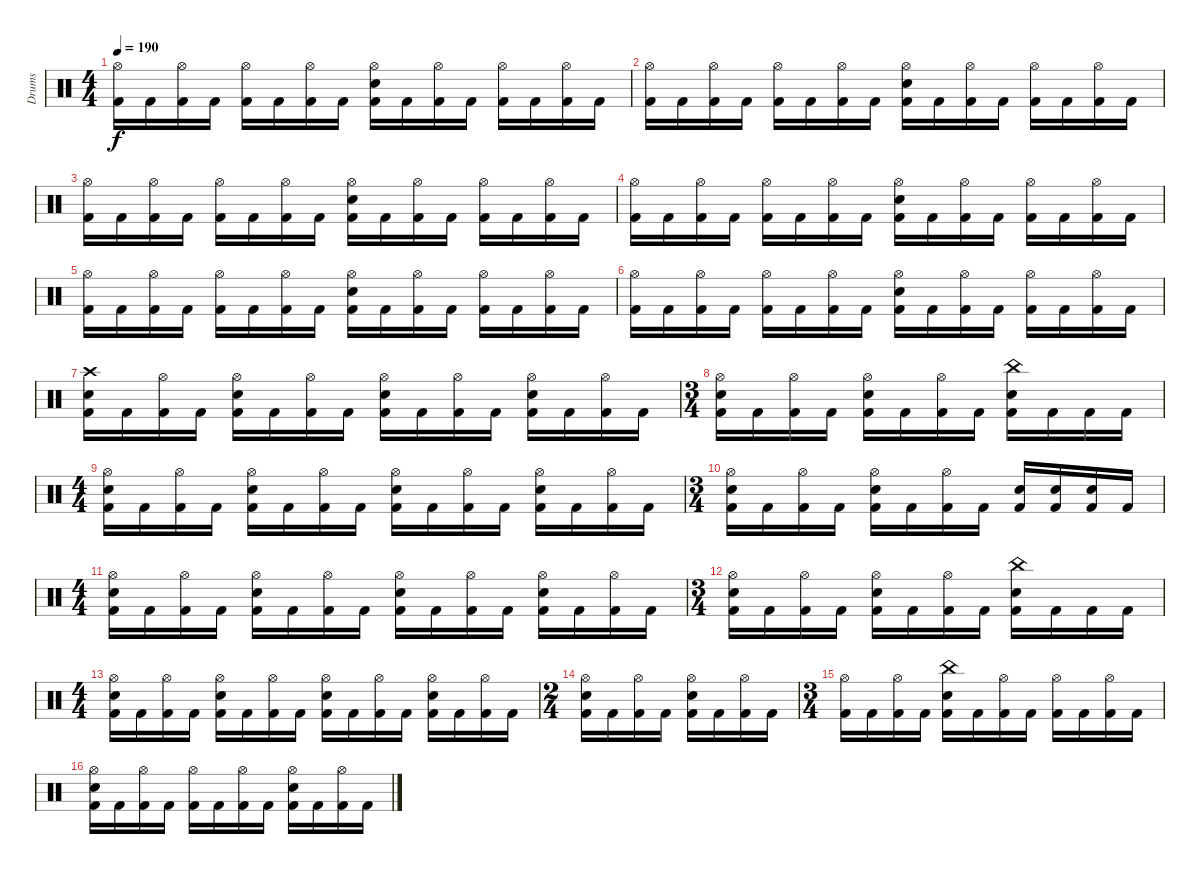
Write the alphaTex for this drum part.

\track ("Drums" "Drums") {instrument percussion}
\staff {score}
\articulation defaults
\ts (4 4)
\tempo 190
\clef neutral
\ks c
("Hi-Hat (open)" "Kick (hit) 2").16{dy f} "Kick (hit) 2".16 ("Hi-Hat (open)" "Kick (hit) 2").16 "Kick (hit) 2".16 ("Hi-Hat (open)" "Kick (hit) 2").16 "Kick (hit) 2".16 ("Hi-Hat (open)" "Kick (hit) 2").16 "Kick (hit) 2".16 ("Hi-Hat (open)" "Electric Snare (hit)" "Kick (hit) 2").16 "Kick (hit) 2".16 ("Hi-Hat (open)" "Kick (hit) 2").16 "Kick (hit) 2".16 ("Hi-Hat (open)" "Kick (hit) 2").16 "Kick (hit) 2".16 ("Hi-Hat (open)" "Kick (hit) 2").16 "Kick (hit) 2".16 |
("Hi-Hat (open)" "Kick (hit) 2").16 "Kick (hit) 2".16 ("Hi-Hat (open)" "Kick (hit) 2").16 "Kick (hit) 2".16 ("Hi-Hat (open)" "Kick (hit) 2").16 "Kick (hit) 2".16 ("Hi-Hat (open)" "Kick (hit) 2").16 "Kick (hit) 2".16 ("Hi-Hat (open)" "Electric Snare (hit)" "Kick (hit) 2").16 "Kick (hit) 2".16 ("Hi-Hat (open)" "Kick (hit) 2").16 "Kick (hit) 2".16 ("Hi-Hat (open)" "Kick (hit) 2").16 "Kick (hit) 2".16 ("Hi-Hat (open)" "Kick (hit) 2").16 "Kick (hit) 2".16 |
("Hi-Hat (open)" "Kick (hit) 2").16 "Kick (hit) 2".16 ("Hi-Hat (open)" "Kick (hit) 2").16 "Kick (hit) 2".16 ("Hi-Hat (open)" "Kick (hit) 2").16 "Kick (hit) 2".16 ("Hi-Hat (open)" "Kick (hit) 2").16 "Kick (hit) 2".16 ("Hi-Hat (open)" "Electric Snare (hit)" "Kick (hit) 2").16 "Kick (hit) 2".16 ("Hi-Hat (open)" "Kick (hit) 2").16 "Kick (hit) 2".16 ("Hi-Hat (open)" "Kick (hit) 2").16 "Kick (hit) 2".16 ("Hi-Hat (open)" "Kick (hit) 2").16 "Kick (hit) 2".16 |
("Hi-Hat (open)" "Kick (hit) 2").16 "Kick (hit) 2".16 ("Hi-Hat (open)" "Kick (hit) 2").16 "Kick (hit) 2".16 ("Hi-Hat (open)" "Kick (hit) 2").16 "Kick (hit) 2".16 ("Hi-Hat (open)" "Kick (hit) 2").16 "Kick (hit) 2".16 ("Hi-Hat (open)" "Electric Snare (hit)" "Kick (hit) 2").16 "Kick (hit) 2".16 ("Hi-Hat (open)" "Kick (hit) 2").16 "Kick (hit) 2".16 ("Hi-Hat (open)" "Kick (hit) 2").16 "Kick (hit) 2".16 ("Hi-Hat (open)" "Kick (hit) 2").16 "Kick (hit) 2".16 |
("Hi-Hat (open)" "Kick (hit) 2").16 "Kick (hit) 2".16 ("Hi-Hat (open)" "Kick (hit) 2").16 "Kick (hit) 2".16 ("Hi-Hat (open)" "Kick (hit) 2").16 "Kick (hit) 2".16 ("Hi-Hat (open)" "Kick (hit) 2").16 "Kick (hit) 2".16 ("Hi-Hat (open)" "Electric Snare (hit)" "Kick (hit) 2").16 "Kick (hit) 2".16 ("Hi-Hat (open)" "Kick (hit) 2").16 "Kick (hit) 2".16 ("Hi-Hat (open)" "Kick (hit) 2").16 "Kick (hit) 2".16 ("Hi-Hat (open)" "Kick (hit) 2").16 "Kick (hit) 2".16 |
("Hi-Hat (open)" "Kick (hit) 2").16 "Kick (hit) 2".16 ("Hi-Hat (open)" "Kick (hit) 2").16 "Kick (hit) 2".16 ("Hi-Hat (open)" "Kick (hit) 2").16 "Kick (hit) 2".16 ("Hi-Hat (open)" "Kick (hit) 2").16 "Kick (hit) 2".16 ("Hi-Hat (open)" "Electric Snare (hit)" "Kick (hit) 2").16 "Kick (hit) 2".16 ("Hi-Hat (open)" "Kick (hit) 2").16 "Kick (hit) 2".16 ("Hi-Hat (open)" "Kick (hit) 2").16 "Kick (hit) 2".16 ("Hi-Hat (open)" "Kick (hit) 2").16 "Kick (hit) 2".16 |
("Crash high (hit)" "Electric Snare (hit)" "Kick (hit) 2").16 "Kick (hit) 2".16 ("Hi-Hat (open)" "Kick (hit) 2").16 "Kick (hit) 2".16 ("Hi-Hat (open)" "Electric Snare (hit)" "Kick (hit) 2").16 "Kick (hit) 2".16 ("Hi-Hat (open)" "Kick (hit) 2").16 "Kick (hit) 2".16 ("Hi-Hat (open)" "Electric Snare (hit)" "Kick (hit) 2").16 "Kick (hit) 2".16 ("Hi-Hat (open)" "Kick (hit) 2").16 "Kick (hit) 2".16 ("Hi-Hat (open)" "Electric Snare (hit)" "Kick (hit) 2").16 "Kick (hit) 2".16 ("Hi-Hat (open)" "Kick (hit) 2").16 "Kick (hit) 2".16 |
\ts (3 4)
("Hi-Hat (open)" "Electric Snare (hit)" "Kick (hit) 2").16 "Kick (hit) 2".16 ("Hi-Hat (open)" "Kick (hit) 2").16 "Kick (hit) 2".16 ("Hi-Hat (open)" "Electric Snare (hit)" "Kick (hit) 2").16 "Kick (hit) 2".16 ("Hi-Hat (open)" "Kick (hit) 2").16 "Kick (hit) 2".16 ("China (hit)" "Electric Snare (hit)" "Kick (hit) 2").16 "Kick (hit) 2".16 "Kick (hit) 2".16 "Kick (hit) 2".16 |
\ts (4 4)
("Hi-Hat (open)" "Electric Snare (hit)" "Kick (hit) 2").16 "Kick (hit) 2".16 ("Hi-Hat (open)" "Kick (hit) 2").16 "Kick (hit) 2".16 ("Hi-Hat (open)" "Electric Snare (hit)" "Kick (hit) 2").16 "Kick (hit) 2".16 ("Hi-Hat (open)" "Kick (hit) 2").16 "Kick (hit) 2".16 ("Hi-Hat (open)" "Electric Snare (hit)" "Kick (hit) 2").16 "Kick (hit) 2".16 ("Hi-Hat (open)" "Kick (hit) 2").16 "Kick (hit) 2".16 ("Hi-Hat (open)" "Electric Snare (hit)" "Kick (hit) 2").16 "Kick (hit) 2".16 ("Hi-Hat (open)" "Kick (hit) 2").16 "Kick (hit) 2".16 |
\ts (3 4)
("Hi-Hat (open)" "Electric Snare (hit)" "Kick (hit) 2").16 "Kick (hit) 2".16 ("Hi-Hat (open)" "Kick (hit) 2").16 "Kick (hit) 2".16 ("Hi-Hat (open)" "Electric Snare (hit)" "Kick (hit) 2").16 "Kick (hit) 2".16 ("Hi-Hat (open)" "Kick (hit) 2").16 "Kick (hit) 2".16 ("Electric Snare (hit)" "Kick (hit) 2").16 ("Electric Snare (hit)" "Kick (hit) 2").16 ("Electric Snare (hit)" "Kick (hit) 2").16 "Kick (hit) 2".16 |
\ts (4 4)
("Hi-Hat (open)" "Electric Snare (hit)" "Kick (hit) 2").16 "Kick (hit) 2".16 ("Hi-Hat (open)" "Kick (hit) 2").16 "Kick (hit) 2".16 ("Hi-Hat (open)" "Electric Snare (hit)" "Kick (hit) 2").16 "Kick (hit) 2".16 ("Hi-Hat (open)" "Kick (hit) 2").16 "Kick (hit) 2".16 ("Hi-Hat (open)" "Electric Snare (hit)" "Kick (hit) 2").16 "Kick (hit) 2".16 ("Hi-Hat (open)" "Kick (hit) 2").16 "Kick (hit) 2".16 ("Hi-Hat (open)" "Electric Snare (hit)" "Kick (hit) 2").16 "Kick (hit) 2".16 ("Hi-Hat (open)" "Kick (hit) 2").16 "Kick (hit) 2".16 |
\ts (3 4)
("Hi-Hat (open)" "Electric Snare (hit)" "Kick (hit) 2").16 "Kick (hit) 2".16 ("Hi-Hat (open)" "Kick (hit) 2").16 "Kick (hit) 2".16 ("Hi-Hat (open)" "Electric Snare (hit)" "Kick (hit) 2").16 "Kick (hit) 2".16 ("Hi-Hat (open)" "Kick (hit) 2").16 "Kick (hit) 2".16 ("China (hit)" "Electric Snare (hit)" "Kick (hit) 2").16 "Kick (hit) 2".16 "Kick (hit) 2".16 "Kick (hit) 2".16 |
\ts (4 4)
("Hi-Hat (open)" "Electric Snare (hit)" "Kick (hit) 2").16 "Kick (hit) 2".16 ("Hi-Hat (open)" "Kick (hit) 2").16 "Kick (hit) 2".16 ("Hi-Hat (open)" "Electric Snare (hit)" "Kick (hit) 2").16 "Kick (hit) 2".16 ("Hi-Hat (open)" "Kick (hit) 2").16 "Kick (hit) 2".16 ("Hi-Hat (open)" "Electric Snare (hit)" "Kick (hit) 2").16 "Kick (hit) 2".16 ("Hi-Hat (open)" "Kick (hit) 2").16 "Kick (hit) 2".16 ("Hi-Hat (open)" "Electric Snare (hit)" "Kick (hit) 2").16 "Kick (hit) 2".16 ("Hi-Hat (open)" "Kick (hit) 2").16 "Kick (hit) 2".16 |
\ts (2 4)
("Hi-Hat (open)" "Electric Snare (hit)" "Kick (hit) 2").16 "Kick (hit) 2".16 ("Hi-Hat (open)" "Kick (hit) 2").16 "Kick (hit) 2".16 ("Hi-Hat (open)" "Electric Snare (hit)" "Kick (hit) 2").16 "Kick (hit) 2".16 ("Hi-Hat (open)" "Kick (hit) 2").16 "Kick (hit) 2".16 |
\ts (3 4)
("Hi-Hat (open)" "Kick (hit) 2").16 "Kick (hit) 2".16 ("Hi-Hat (open)" "Kick (hit) 2").16 "Kick (hit) 2".16 ("China (hit)" "Electric Snare (hit)" "Kick (hit) 2").16 "Kick (hit) 2".16 ("Hi-Hat (open)" "Kick (hit) 2").16 "Kick (hit) 2".16 ("Hi-Hat (open)" "Kick (hit) 2").16 "Kick (hit) 2".16 ("Hi-Hat (open)" "Kick (hit) 2").16 "Kick (hit) 2".16 |
("Hi-Hat (open)" "Electric Snare (hit)" "Kick (hit) 2").16 "Kick (hit) 2".16 ("Hi-Hat (open)" "Kick (hit) 2").16 "Kick (hit) 2".16 ("Hi-Hat (open)" "Kick (hit) 2").16 "Kick (hit) 2".16 ("Hi-Hat (open)" "Kick (hit) 2").16 "Kick (hit) 2".16 ("Hi-Hat (open)" "Electric Snare (hit)" "Kick (hit) 2").16 "Kick (hit) 2".16 ("Hi-Hat (open)" "Kick (hit) 2").16 "Kick (hit) 2".16
